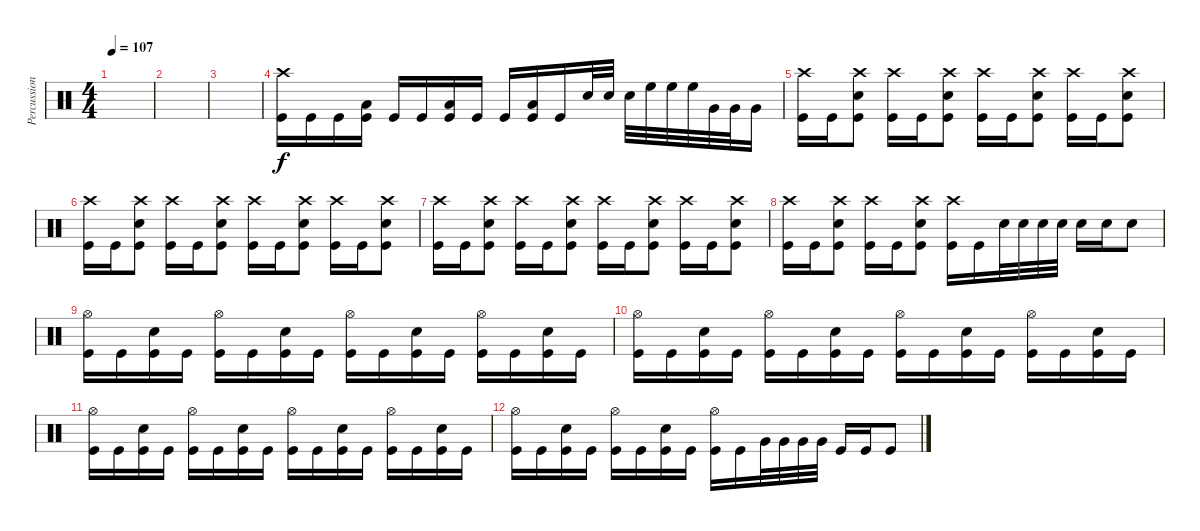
\track ("Percussion" "Percussion") {instrument percussion}
\staff {score}
\articulation defaults
\ts (4 4)
\tempo 107
\clef neutral
\ks c
|
|
|
("Crash high (hit)" "Kick (hit)").16 "Kick (hit)".16 "Kick (hit)".16 ("Low Floor Tom (hit)" "Kick (hit)").16 "Kick (hit)".16 "Kick (hit)".16 ("Low Floor Tom (hit)" "Kick (hit)").16 "Kick (hit)".16 "Kick (hit)".16 ("Low Floor Tom (hit)" "Kick (hit)").16 "Kick (hit)".16 "Snare (hit) 2".32 "Snare (hit) 2".32 "Snare (hit) 2".32 "High Floor Tom (hit)".32 "High Floor Tom (hit)".32 "High Floor Tom (hit)".32 "Very Low Tom (hit)".32 "Very Low Tom (hit)".32 "Very Low Tom (hit)".16 |
("Crash high (hit)" "Kick (hit)").16 "Kick (hit)".16 ("Crash high (hit)" "Snare (hit) 2" "Kick (hit)").8 ("Crash high (hit)" "Kick (hit)").16 "Kick (hit)".16 ("Crash high (hit)" "Snare (hit) 2" "Kick (hit)").8 ("Crash high (hit)" "Kick (hit)").16 "Kick (hit)".16 ("Crash high (hit)" "Snare (hit) 2" "Kick (hit)").8 ("Crash high (hit)" "Kick (hit)").16 "Kick (hit)".16 ("Crash high (hit)" "Snare (hit) 2" "Kick (hit)").8 |
("Crash high (hit)" "Kick (hit)").16 "Kick (hit)".16 ("Crash high (hit)" "Snare (hit) 2" "Kick (hit)").8 ("Crash high (hit)" "Kick (hit)").16 "Kick (hit)".16 ("Crash high (hit)" "Snare (hit) 2" "Kick (hit)").8 ("Crash high (hit)" "Kick (hit)").16 "Kick (hit)".16 ("Crash high (hit)" "Snare (hit) 2" "Kick (hit)").8 ("Crash high (hit)" "Kick (hit)").16 "Kick (hit)".16 ("Crash high (hit)" "Snare (hit) 2" "Kick (hit)").8 |
("Crash high (hit)" "Kick (hit)").16 "Kick (hit)".16 ("Crash high (hit)" "Snare (hit) 2" "Kick (hit)").8 ("Crash high (hit)" "Kick (hit)").16 "Kick (hit)".16 ("Crash high (hit)" "Snare (hit) 2" "Kick (hit)").8 ("Crash high (hit)" "Kick (hit)").16 "Kick (hit)".16 ("Crash high (hit)" "Snare (hit) 2" "Kick (hit)").8 ("Crash high (hit)" "Kick (hit)").16 "Kick (hit)".16 ("Crash high (hit)" "Snare (hit) 2" "Kick (hit)").8 |
("Crash high (hit)" "Kick (hit)").16 "Kick (hit)".16 ("Crash high (hit)" "Snare (hit) 2" "Kick (hit)").8 ("Crash high (hit)" "Kick (hit)").16 "Kick (hit)".16 ("Crash high (hit)" "Snare (hit) 2" "Kick (hit)").8 ("Crash high (hit)" "Kick (hit)").16 "Kick (hit)".16 "Snare (hit) 2".32 "Snare (hit) 2".32 "Snare (hit) 2".32 "Snare (hit) 2".32 "Snare (hit) 2".16 "Snare (hit) 2".16 "Snare (hit) 2".8 |
("Hi-Hat (open)" "Kick (hit)").16 "Kick (hit)".16 ("Snare (hit) 2" "Kick (hit)").16 "Kick (hit)".16 ("Hi-Hat (open)" "Kick (hit)").16 "Kick (hit)".16 ("Snare (hit) 2" "Kick (hit)").16 "Kick (hit)".16 ("Hi-Hat (open)" "Kick (hit)").16 "Kick (hit)".16 ("Snare (hit) 2" "Kick (hit)").16 "Kick (hit)".16 ("Hi-Hat (open)" "Kick (hit)").16 "Kick (hit)".16 ("Snare (hit) 2" "Kick (hit)").16 "Kick (hit)".16 |
("Hi-Hat (open)" "Kick (hit)").16 "Kick (hit)".16 ("Snare (hit) 2" "Kick (hit)").16 "Kick (hit)".16 ("Hi-Hat (open)" "Kick (hit)").16 "Kick (hit)".16 ("Snare (hit) 2" "Kick (hit)").16 "Kick (hit)".16 ("Hi-Hat (open)" "Kick (hit)").16 "Kick (hit)".16 ("Snare (hit) 2" "Kick (hit)").16 "Kick (hit)".16 ("Hi-Hat (open)" "Kick (hit)").16 "Kick (hit)".16 ("Snare (hit) 2" "Kick (hit)").16 "Kick (hit)".16 |
("Hi-Hat (open)" "Kick (hit)").16 "Kick (hit)".16 ("Snare (hit) 2" "Kick (hit)").16 "Kick (hit)".16 ("Hi-Hat (open)" "Kick (hit)").16 "Kick (hit)".16 ("Snare (hit) 2" "Kick (hit)").16 "Kick (hit)".16 ("Hi-Hat (open)" "Kick (hit)").16 "Kick (hit)".16 ("Snare (hit) 2" "Kick (hit)").16 "Kick (hit)".16 ("Hi-Hat (open)" "Kick (hit)").16 "Kick (hit)".16 ("Snare (hit) 2" "Kick (hit)").16 "Kick (hit)".16 |
("Hi-Hat (open)" "Kick (hit)").16 "Kick (hit)".16 ("Snare (hit) 2" "Kick (hit)").16 "Kick (hit)".16 ("Hi-Hat (open)" "Kick (hit)").16 "Kick (hit)".16 ("Snare (hit) 2" "Kick (hit)").16 "Kick (hit)".16 ("Hi-Hat (open)" "Kick (hit)").16 "Kick (hit)".16 "Very Low Tom (hit)".32 "Very Low Tom (hit)".32 "Very Low Tom (hit)".32 "Very Low Tom (hit)".32 "Kick (hit)".16 "Kick (hit)".16 "Kick (hit)".8
